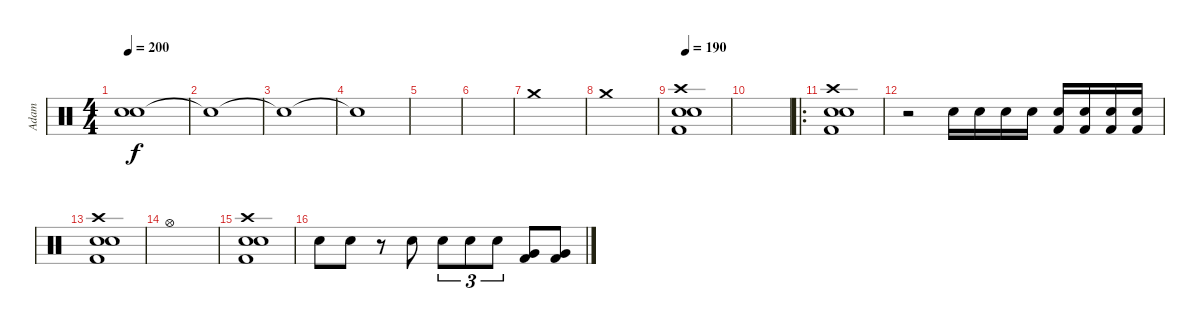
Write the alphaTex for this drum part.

\track ("Adam" "Adam") {instrument percussion}
\staff {score}
\articulation defaults
\ts (4 4)
\tempo 200
\clef neutral
\ks c
("Snare (hit)"{t} "Snare (hit)"{t}).1{dy f} |
"Snare (hit)"{t}.1{volume 12} |
"Snare (hit)"{t}.1 |
"Snare (hit)"{t}.1 |
|
|
"Crash medium (hit)".1{volume 10} |
"Crash medium (hit)".1 |
\tempo 190
("Crash high (hit)" "Electric Snare (hit)" "Snare (hit) 2" "Kick (hit) 2").1 |
|
\ro
("Crash high (hit)" "Electric Snare (hit)" "Snare (hit) 2" "Kick (hit) 2").1 |
r.2 "Electric Snare (hit)".16 "Electric Snare (hit)".16 "Electric Snare (hit)".16 "Electric Snare (hit)".16 ("Snare (hit) 2" "Kick (hit) 2").16 ("Snare (hit) 2" "Kick (hit) 2").16 ("Snare (hit) 2" "Kick (hit) 2").16 ("Snare (hit) 2" "Kick (hit) 2").16 |
("Crash high (hit)" "Electric Snare (hit)" "Snare (hit) 2" "Kick (hit) 2").1 |
"Hi-Hat (open)".1 |
("Crash high (hit)" "Electric Snare (hit)" "Snare (hit) 2" "Kick (hit) 2").1 |
"Electric Snare (hit)".8 "Electric Snare (hit)".8 r.8 "Electric Snare (hit)".8 "Snare (hit) 2".8{tu (3 2)} "Snare (hit) 2".8{tu (3 2)} "Snare (hit) 2".8{tu (3 2)} ("Very Low Tom (hit)" "Kick (hit) 2").8 ("Very Low Tom (hit)" "Kick (hit) 2").8
